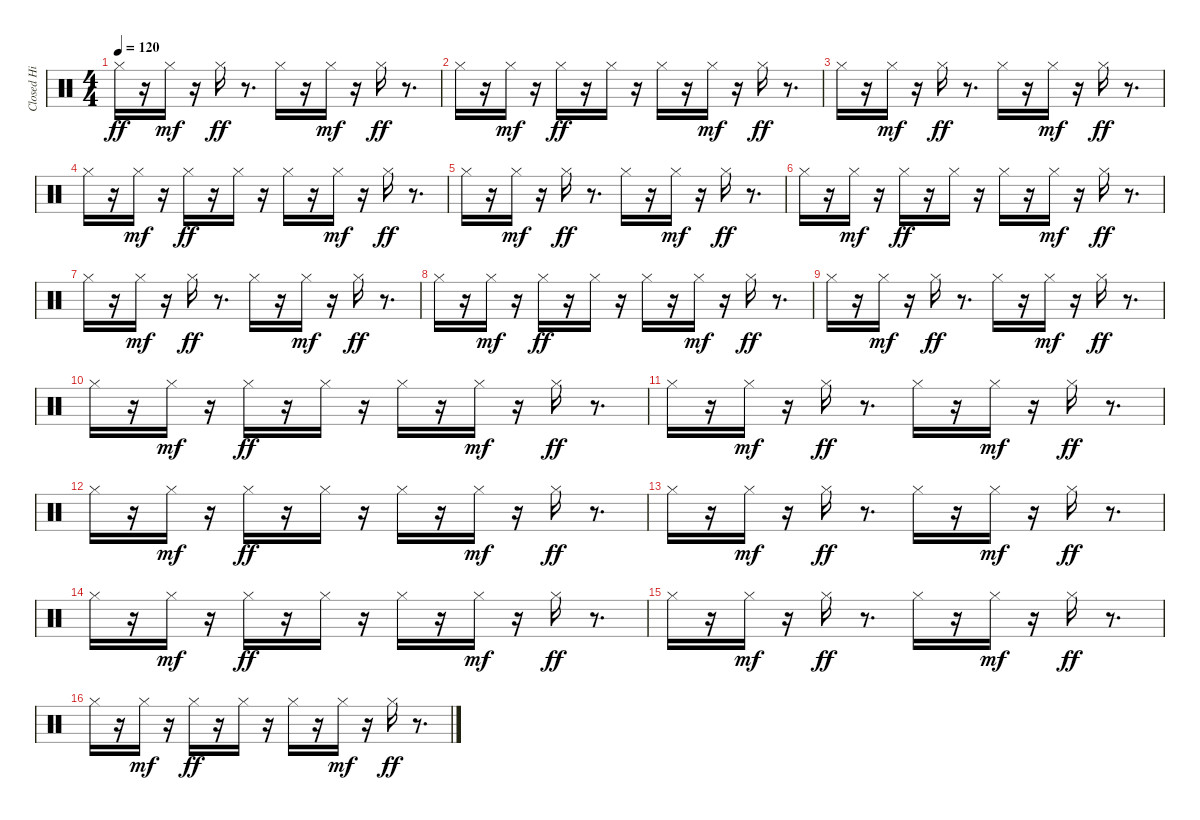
\track ("Closed Hi Hat       " "Closed Hi ") {instrument percussion}
\staff {score}
\articulation defaults
\ts (4 4)
\tempo 120
\clef neutral
\ks c "Hi-Hat (closed)".16{dy ff}
r.16 "Hi-Hat (closed)".16{dy mf} r.16 "Hi-Hat (closed)".16{dy ff} r.8{d} "Hi-Hat (closed)".16 r.16 "Hi-Hat (closed)".16{dy mf} r.16 "Hi-Hat (closed)".16{dy ff} r.8{d} |
"Hi-Hat (closed)".16 r.16 "Hi-Hat (closed)".16{dy mf} r.16 "Hi-Hat (closed)".16{dy ff} r.16 "Hi-Hat (closed)".16 r.16 "Hi-Hat (closed)".16 r.16 "Hi-Hat (closed)".16{dy mf} r.16 "Hi-Hat (closed)".16{dy ff} r.8{d} |
"Hi-Hat (closed)".16 r.16 "Hi-Hat (closed)".16{dy mf} r.16 "Hi-Hat (closed)".16{dy ff} r.8{d} "Hi-Hat (closed)".16 r.16 "Hi-Hat (closed)".16{dy mf} r.16 "Hi-Hat (closed)".16{dy ff} r.8{d} |
"Hi-Hat (closed)".16 r.16 "Hi-Hat (closed)".16{dy mf} r.16 "Hi-Hat (closed)".16{dy ff} r.16 "Hi-Hat (closed)".16 r.16 "Hi-Hat (closed)".16 r.16 "Hi-Hat (closed)".16{dy mf} r.16 "Hi-Hat (closed)".16{dy ff} r.8{d} |
"Hi-Hat (closed)".16 r.16 "Hi-Hat (closed)".16{dy mf} r.16 "Hi-Hat (closed)".16{dy ff} r.8{d} "Hi-Hat (closed)".16 r.16 "Hi-Hat (closed)".16{dy mf} r.16 "Hi-Hat (closed)".16{dy ff} r.8{d} |
"Hi-Hat (closed)".16 r.16 "Hi-Hat (closed)".16{dy mf} r.16 "Hi-Hat (closed)".16{dy ff} r.16 "Hi-Hat (closed)".16 r.16 "Hi-Hat (closed)".16 r.16 "Hi-Hat (closed)".16{dy mf} r.16 "Hi-Hat (closed)".16{dy ff} r.8{d} |
"Hi-Hat (closed)".16 r.16 "Hi-Hat (closed)".16{dy mf} r.16 "Hi-Hat (closed)".16{dy ff} r.8{d} "Hi-Hat (closed)".16 r.16 "Hi-Hat (closed)".16{dy mf} r.16 "Hi-Hat (closed)".16{dy ff} r.8{d} |
"Hi-Hat (closed)".16 r.16 "Hi-Hat (closed)".16{dy mf} r.16 "Hi-Hat (closed)".16{dy ff} r.16 "Hi-Hat (closed)".16 r.16 "Hi-Hat (closed)".16 r.16 "Hi-Hat (closed)".16{dy mf} r.16 "Hi-Hat (closed)".16{dy ff} r.8{d} |
"Hi-Hat (closed)".16 r.16 "Hi-Hat (closed)".16{dy mf} r.16 "Hi-Hat (closed)".16{dy ff} r.8{d} "Hi-Hat (closed)".16 r.16 "Hi-Hat (closed)".16{dy mf} r.16 "Hi-Hat (closed)".16{dy ff} r.8{d} |
"Hi-Hat (closed)".16 r.16 "Hi-Hat (closed)".16{dy mf} r.16 "Hi-Hat (closed)".16{dy ff} r.16 "Hi-Hat (closed)".16 r.16 "Hi-Hat (closed)".16 r.16 "Hi-Hat (closed)".16{dy mf} r.16 "Hi-Hat (closed)".16{dy ff} r.8{d} |
"Hi-Hat (closed)".16 r.16 "Hi-Hat (closed)".16{dy mf} r.16 "Hi-Hat (closed)".16{dy ff} r.8{d} "Hi-Hat (closed)".16 r.16 "Hi-Hat (closed)".16{dy mf} r.16 "Hi-Hat (closed)".16{dy ff} r.8{d} |
"Hi-Hat (closed)".16 r.16 "Hi-Hat (closed)".16{dy mf} r.16 "Hi-Hat (closed)".16{dy ff} r.16 "Hi-Hat (closed)".16 r.16 "Hi-Hat (closed)".16 r.16 "Hi-Hat (closed)".16{dy mf} r.16 "Hi-Hat (closed)".16{dy ff} r.8{d} |
"Hi-Hat (closed)".16 r.16 "Hi-Hat (closed)".16{dy mf} r.16 "Hi-Hat (closed)".16{dy ff} r.8{d} "Hi-Hat (closed)".16 r.16 "Hi-Hat (closed)".16{dy mf} r.16 "Hi-Hat (closed)".16{dy ff} r.8{d} |
"Hi-Hat (closed)".16 r.16 "Hi-Hat (closed)".16{dy mf} r.16 "Hi-Hat (closed)".16{dy ff} r.16 "Hi-Hat (closed)".16 r.16 "Hi-Hat (closed)".16 r.16 "Hi-Hat (closed)".16{dy mf} r.16 "Hi-Hat (closed)".16{dy ff} r.8{d} |
"Hi-Hat (closed)".16 r.16 "Hi-Hat (closed)".16{dy mf} r.16 "Hi-Hat (closed)".16{dy ff} r.8{d} "Hi-Hat (closed)".16 r.16 "Hi-Hat (closed)".16{dy mf} r.16 "Hi-Hat (closed)".16{dy ff} r.8{d} |
"Hi-Hat (closed)".16 r.16 "Hi-Hat (closed)".16{dy mf} r.16 "Hi-Hat (closed)".16{dy ff} r.16 "Hi-Hat (closed)".16 r.16 "Hi-Hat (closed)".16 r.16 "Hi-Hat (closed)".16{dy mf} r.16 "Hi-Hat (closed)".16{dy ff} r.8{d}
